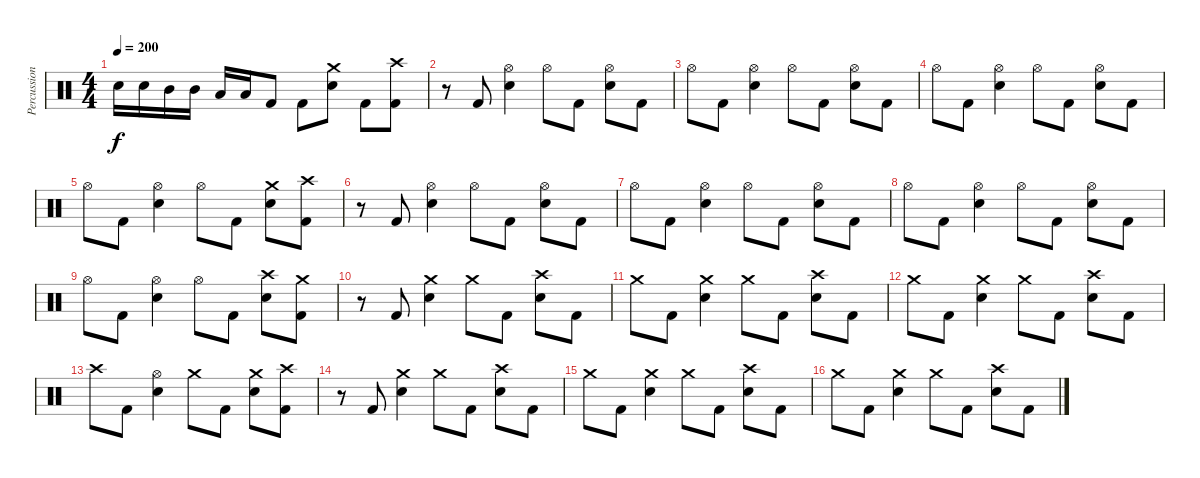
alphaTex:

\track ("Percussion" "Percussion") {instrument percussion}
\staff {score}
\articulation defaults
\ts (4 4)
\tempo 200
\clef neutral
\ks c "Snare (hit) 2".16{dy f} "Snare (hit) 2".16 "Mid Tom (hit)".16 "Mid Tom (hit)".16 "Low Tom (hit)".16 "Low Tom (hit)".16 "Kick (hit) 2".8 "Kick (hit) 2".8
("Crash medium (hit)" "Snare (hit) 2").8 "Kick (hit) 2".8 ("Crash high (hit)" "Kick (hit) 2").8 |
r.8 "Kick (hit) 2".8 ("Hi-Hat (open)" "Snare (hit) 2").4 "Hi-Hat (open)".8 "Kick (hit) 2".8 ("Hi-Hat (open)" "Snare (hit) 2").8 "Kick (hit) 2".8 |
"Hi-Hat (open)".8 "Kick (hit) 2".8 ("Hi-Hat (open)" "Snare (hit) 2").4 "Hi-Hat (open)".8 "Kick (hit) 2".8 ("Hi-Hat (open)" "Snare (hit) 2").8 "Kick (hit) 2".8 |
"Hi-Hat (open)".8 "Kick (hit) 2".8 ("Hi-Hat (open)" "Snare (hit) 2").4 "Hi-Hat (open)".8 "Kick (hit) 2".8 ("Hi-Hat (open)" "Snare (hit) 2").8 "Kick (hit) 2".8 |
"Hi-Hat (open)".8 "Kick (hit) 2".8 ("Hi-Hat (open)" "Snare (hit) 2").4 "Hi-Hat (open)".8 "Kick (hit) 2".8 ("Crash medium (hit)" "Snare (hit) 2").8 ("Crash high (hit)" "Kick (hit) 2").8 |
r.8 "Kick (hit) 2".8 ("Hi-Hat (open)" "Snare (hit) 2").4 "Hi-Hat (open)".8 "Kick (hit) 2".8 ("Hi-Hat (open)" "Snare (hit) 2").8 "Kick (hit) 2".8 |
"Hi-Hat (open)".8 "Kick (hit) 2".8 ("Hi-Hat (open)" "Snare (hit) 2").4 "Hi-Hat (open)".8 "Kick (hit) 2".8 ("Hi-Hat (open)" "Snare (hit) 2").8 "Kick (hit) 2".8 |
"Hi-Hat (open)".8 "Kick (hit) 2".8 ("Hi-Hat (open)" "Snare (hit) 2").4 "Hi-Hat (open)".8 "Kick (hit) 2".8 ("Hi-Hat (open)" "Snare (hit) 2").8 "Kick (hit) 2".8 |
"Hi-Hat (open)".8 "Kick (hit) 2".8 ("Hi-Hat (open)" "Snare (hit) 2").4 "Hi-Hat (open)".8 "Kick (hit) 2".8 ("Crash high (hit)" "Snare (hit) 2").8 ("Crash medium (hit)" "Kick (hit) 2").8 |
r.8 "Kick (hit) 2".8 ("Crash medium (hit)" "Snare (hit) 2").4 "Crash medium (hit)".8 "Kick (hit) 2".8 ("Crash high (hit)" "Snare (hit) 2").8 "Kick (hit) 2".8 |
"Crash medium (hit)".8 "Kick (hit) 2".8 ("Crash medium (hit)" "Snare (hit) 2").4 "Crash medium (hit)".8 "Kick (hit) 2".8 ("Crash high (hit)" "Snare (hit) 2").8 "Kick (hit) 2".8 |
"Crash medium (hit)".8 "Kick (hit) 2".8 ("Crash medium (hit)" "Snare (hit) 2").4 "Crash medium (hit)".8 "Kick (hit) 2".8 ("Crash high (hit)" "Snare (hit) 2").8 "Kick (hit) 2".8 |
"Crash high (hit)".8 "Kick (hit) 2".8 ("Hi-Hat (open)" "Snare (hit) 2").4 "Crash medium (hit)".8 "Kick (hit) 2".8 ("Crash medium (hit)" "Snare (hit) 2").8 ("Crash high (hit)" "Kick (hit) 2").8 |
r.8 "Kick (hit) 2".8 ("Crash medium (hit)" "Snare (hit) 2").4 "Crash medium (hit)".8 "Kick (hit) 2".8 ("Crash high (hit)" "Snare (hit) 2").8 "Kick (hit) 2".8 |
"Crash medium (hit)".8 "Kick (hit) 2".8 ("Crash medium (hit)" "Snare (hit) 2").4 "Crash medium (hit)".8 "Kick (hit) 2".8 ("Crash high (hit)" "Snare (hit) 2").8 "Kick (hit) 2".8 |
"Crash medium (hit)".8 "Kick (hit) 2".8 ("Crash medium (hit)" "Snare (hit) 2").4 "Crash medium (hit)".8 "Kick (hit) 2".8 ("Crash high (hit)" "Snare (hit) 2").8 "Kick (hit) 2".8
